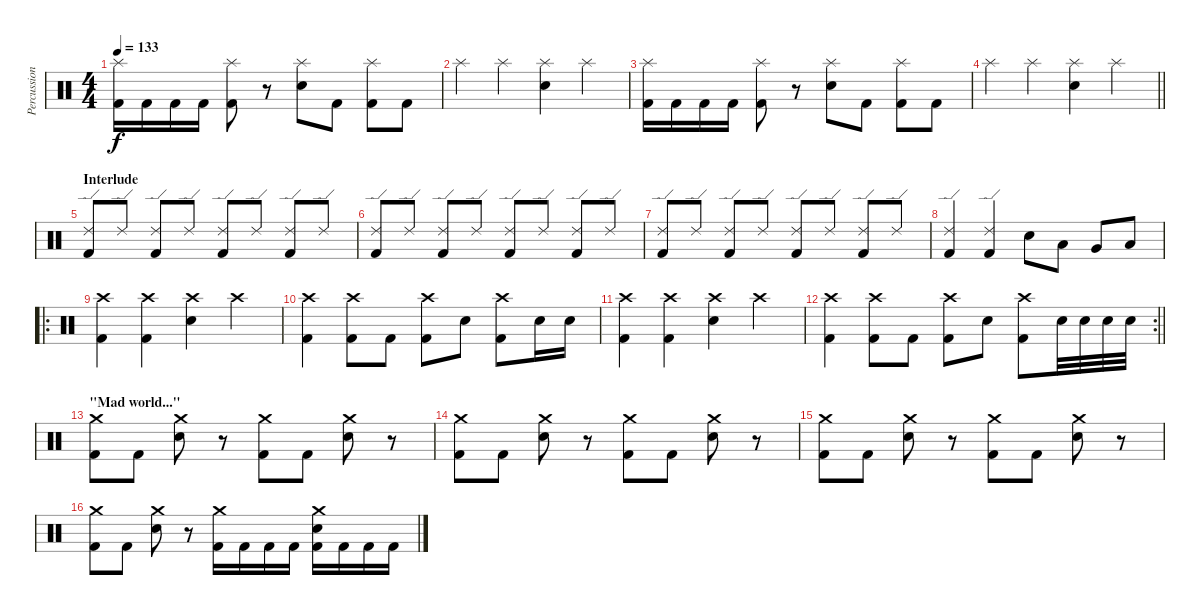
\track ("Percussion" "Percussion") {instrument percussion}
\staff {score}
\articulation defaults
\ts (4 4)
\tempo 133
\clef neutral
\ks c
("Splash (hit)" "Kick (hit) 2").16{dy f} "Kick (hit) 2".16 "Kick (hit) 2".16 "Kick (hit) 2".16 ("Splash (hit)" "Kick (hit) 2").8 r.8 ("Splash (hit)" "Snare (hit) 2").8 "Kick (hit) 2".8 ("Splash (hit)" "Kick (hit) 2").8 "Kick (hit) 2".8 |
"Splash (hit)".4 "Splash (hit)".4 ("Splash (hit)" "Snare (hit) 2").4 "Splash (hit)".4 |
("Splash (hit)" "Kick (hit) 2").16 "Kick (hit) 2".16 "Kick (hit) 2".16 "Kick (hit) 2".16 ("Splash (hit)" "Kick (hit) 2").8 r.8 ("Splash (hit)" "Snare (hit) 2").8 "Kick (hit) 2".8 ("Splash (hit)" "Kick (hit) 2").8 "Kick (hit) 2".8 |
\barLineRight lightlight "Splash (hit)".4 "Splash (hit)".4
("Splash (hit)" "Snare (hit) 2").4 "Splash (hit)".4 |
\section ("" "Interlude")
("Ride (edge) 2" "Kick (hit) 2").8 "Ride (edge) 2".8 ("Ride (edge) 2" "Kick (hit) 2").8 "Ride (edge) 2".8 ("Ride (edge) 2" "Kick (hit) 2").8 "Ride (edge) 2".8 ("Ride (edge) 2" "Kick (hit) 2").8 "Ride (edge) 2".8 |
("Ride (edge) 2" "Kick (hit) 2").8 "Ride (edge) 2".8 ("Ride (edge) 2" "Kick (hit) 2").8 "Ride (edge) 2".8 ("Ride (edge) 2" "Kick (hit) 2").8 "Ride (edge) 2".8 ("Ride (edge) 2" "Kick (hit) 2").8 "Ride (edge) 2".8 |
("Ride (edge) 2" "Kick (hit) 2").8 "Ride (edge) 2".8 ("Ride (edge) 2" "Kick (hit) 2").8 "Ride (edge) 2".8 ("Ride (edge) 2" "Kick (hit) 2").8 "Ride (edge) 2".8 ("Ride (edge) 2" "Kick (hit) 2").8 "Ride (edge) 2".8 |
("Ride (edge) 2" "Kick (hit) 2").4 ("Ride (edge) 2" "Kick (hit) 2").4 "Snare (hit) 2".8 "Low Tom (hit)".8 "Very Low Tom (hit)".8 "Low Floor Tom (hit)".8 |
\ro
("Crash high (hit)" "Kick (hit) 2").4 ("Crash high (hit)" "Kick (hit) 2").4 ("Crash high (hit)" "Snare (hit) 2").4 "Crash high (hit)".4 |
("Crash high (hit)" "Kick (hit) 2").4 ("Crash high (hit)" "Kick (hit) 2").8 "Kick (hit) 2".8 ("Crash high (hit)" "Kick (hit) 2").8 "Snare (hit) 2".8 ("Crash high (hit)" "Kick (hit) 2").8 "Snare (hit) 2".16 "Snare (hit) 2".16 |
("Crash high (hit)" "Kick (hit) 2").4 ("Crash high (hit)" "Kick (hit) 2").4 ("Crash high (hit)" "Snare (hit) 2").4 "Crash high (hit)".4 |
\rc 2
\barLineRight lightlight
("Crash high (hit)" "Kick (hit) 2").4 ("Crash high (hit)" "Kick (hit) 2").8 "Kick (hit) 2".8 ("Crash high (hit)" "Kick (hit) 2").8 "Snare (hit) 2".8 ("Crash high (hit)" "Kick (hit) 2").8 "Snare (hit) 2".32 "Snare (hit) 2".32 "Snare (hit) 2".32 "Snare (hit) 2".32 |
\section ("" "\"Mad world...\"")
("Crash medium (hit)" "Kick (hit) 2").8 "Kick (hit) 2".8 ("Crash medium (hit)" "Snare (hit) 2").8 r.8 ("Crash medium (hit)" "Kick (hit) 2").8 "Kick (hit) 2".8 ("Crash medium (hit)" "Snare (hit) 2").8 r.8 |
("Crash medium (hit)" "Kick (hit) 2").8 "Kick (hit) 2".8 ("Crash medium (hit)" "Snare (hit) 2").8 r.8 ("Crash medium (hit)" "Kick (hit) 2").8 "Kick (hit) 2".8 ("Crash medium (hit)" "Snare (hit) 2").8 r.8 |
("Crash medium (hit)" "Kick (hit) 2").8 "Kick (hit) 2".8 ("Crash medium (hit)" "Snare (hit) 2").8 r.8 ("Crash medium (hit)" "Kick (hit) 2").8 "Kick (hit) 2".8 ("Crash medium (hit)" "Snare (hit) 2").8 r.8 |
("Crash medium (hit)" "Kick (hit) 2").8 "Kick (hit) 2".8 ("Crash medium (hit)" "Snare (hit) 2").8 r.8 ("Crash medium (hit)" "Kick (hit) 2").16 "Kick (hit) 2".16 "Kick (hit) 2".16 "Kick (hit) 2".16 ("Crash medium (hit)" "Snare (hit) 2" "Kick (hit) 2").16 "Kick (hit) 2".16 "Kick (hit) 2".16 "Kick (hit) 2".16
